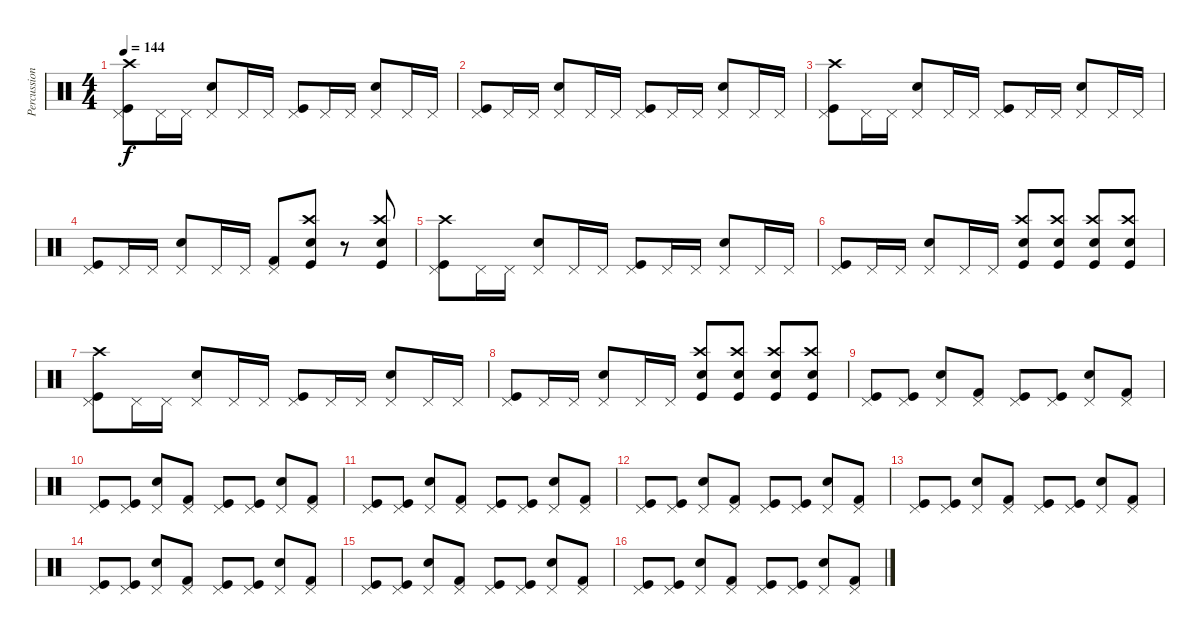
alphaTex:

\track ("Percussion" "Percussion") {instrument percussion}
\staff {score}
\articulation defaults
\ts (4 4)
\tempo 144
\clef neutral
\ks c
("Pedal Hi-Hat (hit)" "Kick (hit)" "Crash high (hit)").8{dy f} "Pedal Hi-Hat (hit)".16 "Pedal Hi-Hat (hit)".16 ("Pedal Hi-Hat (hit)" "Snare (hit) 2").8 "Pedal Hi-Hat (hit)".16 "Pedal Hi-Hat (hit)".16 ("Pedal Hi-Hat (hit)" "Kick (hit)").8 "Pedal Hi-Hat (hit)".16 "Pedal Hi-Hat (hit)".16 ("Pedal Hi-Hat (hit)" "Snare (hit) 2").8 "Pedal Hi-Hat (hit)".16 "Pedal Hi-Hat (hit)".16 |
("Pedal Hi-Hat (hit)" "Kick (hit)").8 "Pedal Hi-Hat (hit)".16 "Pedal Hi-Hat (hit)".16 ("Pedal Hi-Hat (hit)" "Snare (hit) 2").8 "Pedal Hi-Hat (hit)".16 "Pedal Hi-Hat (hit)".16 ("Pedal Hi-Hat (hit)" "Kick (hit)").8 "Pedal Hi-Hat (hit)".16 "Pedal Hi-Hat (hit)".16 ("Pedal Hi-Hat (hit)" "Snare (hit) 2").8 "Pedal Hi-Hat (hit)".16 "Pedal Hi-Hat (hit)".16 |
("Pedal Hi-Hat (hit)" "Kick (hit)" "Crash high (hit)").8 "Pedal Hi-Hat (hit)".16 "Pedal Hi-Hat (hit)".16 ("Pedal Hi-Hat (hit)" "Snare (hit) 2").8 "Pedal Hi-Hat (hit)".16 "Pedal Hi-Hat (hit)".16 ("Pedal Hi-Hat (hit)" "Kick (hit)").8 "Pedal Hi-Hat (hit)".16 "Pedal Hi-Hat (hit)".16 ("Pedal Hi-Hat (hit)" "Snare (hit) 2").8 "Pedal Hi-Hat (hit)".16 "Pedal Hi-Hat (hit)".16 |
("Pedal Hi-Hat (hit)" "Kick (hit)").8 "Pedal Hi-Hat (hit)".16 "Pedal Hi-Hat (hit)".16 ("Pedal Hi-Hat (hit)" "Snare (hit) 2").8 "Pedal Hi-Hat (hit)".16 "Pedal Hi-Hat (hit)".16 ("Pedal Hi-Hat (hit)" "Kick (hit) 2").8 ("Crash high (hit)" "Kick (hit)" "Snare (hit) 2").8 r.8 ("Crash high (hit)" "Kick (hit)" "Snare (hit) 2").8 |
("Pedal Hi-Hat (hit)" "Kick (hit)" "Crash high (hit)").8 "Pedal Hi-Hat (hit)".16 "Pedal Hi-Hat (hit)".16 ("Pedal Hi-Hat (hit)" "Snare (hit) 2").8 "Pedal Hi-Hat (hit)".16 "Pedal Hi-Hat (hit)".16 ("Pedal Hi-Hat (hit)" "Kick (hit)").8 "Pedal Hi-Hat (hit)".16 "Pedal Hi-Hat (hit)".16 ("Pedal Hi-Hat (hit)" "Snare (hit) 2").8 "Pedal Hi-Hat (hit)".16 "Pedal Hi-Hat (hit)".16 |
("Pedal Hi-Hat (hit)" "Kick (hit)").8 "Pedal Hi-Hat (hit)".16 "Pedal Hi-Hat (hit)".16 ("Pedal Hi-Hat (hit)" "Snare (hit) 2").8 "Pedal Hi-Hat (hit)".16 "Pedal Hi-Hat (hit)".16 ("Snare (hit) 2" "Kick (hit)" "Crash high (hit)").8 ("Snare (hit) 2" "Kick (hit)" "Crash high (hit)").8 ("Snare (hit) 2" "Kick (hit)" "Crash high (hit)").8 ("Snare (hit) 2" "Kick (hit)" "Crash high (hit)").8 |
("Pedal Hi-Hat (hit)" "Kick (hit)" "Crash high (hit)").8 "Pedal Hi-Hat (hit)".16 "Pedal Hi-Hat (hit)".16 ("Pedal Hi-Hat (hit)" "Snare (hit) 2").8 "Pedal Hi-Hat (hit)".16 "Pedal Hi-Hat (hit)".16 ("Pedal Hi-Hat (hit)" "Kick (hit)").8 "Pedal Hi-Hat (hit)".16 "Pedal Hi-Hat (hit)".16 ("Pedal Hi-Hat (hit)" "Snare (hit) 2").8 "Pedal Hi-Hat (hit)".16 "Pedal Hi-Hat (hit)".16 |
("Pedal Hi-Hat (hit)" "Kick (hit)").8 "Pedal Hi-Hat (hit)".16 "Pedal Hi-Hat (hit)".16 ("Pedal Hi-Hat (hit)" "Snare (hit) 2").8 "Pedal Hi-Hat (hit)".16 "Pedal Hi-Hat (hit)".16 ("Snare (hit) 2" "Kick (hit)" "Crash high (hit)").8 ("Snare (hit) 2" "Kick (hit)" "Crash high (hit)").8 ("Snare (hit) 2" "Kick (hit)" "Crash high (hit)").8 ("Snare (hit) 2" "Kick (hit)" "Crash high (hit)").8 |
("Pedal Hi-Hat (hit)" "Kick (hit)").8 ("Pedal Hi-Hat (hit)" "Kick (hit)").8 ("Pedal Hi-Hat (hit)" "Snare (hit) 2").8 ("Pedal Hi-Hat (hit)" "Kick (hit) 2").8 ("Pedal Hi-Hat (hit)" "Kick (hit)").8 ("Pedal Hi-Hat (hit)" "Kick (hit)").8 ("Pedal Hi-Hat (hit)" "Snare (hit) 2").8 ("Pedal Hi-Hat (hit)" "Kick (hit) 2").8 |
("Pedal Hi-Hat (hit)" "Kick (hit)").8 ("Pedal Hi-Hat (hit)" "Kick (hit)").8 ("Pedal Hi-Hat (hit)" "Snare (hit) 2").8 ("Pedal Hi-Hat (hit)" "Kick (hit) 2").8 ("Pedal Hi-Hat (hit)" "Kick (hit)").8 ("Pedal Hi-Hat (hit)" "Kick (hit)").8 ("Pedal Hi-Hat (hit)" "Snare (hit) 2").8 ("Pedal Hi-Hat (hit)" "Kick (hit) 2").8 |
("Pedal Hi-Hat (hit)" "Kick (hit)").8 ("Pedal Hi-Hat (hit)" "Kick (hit)").8 ("Pedal Hi-Hat (hit)" "Snare (hit) 2").8 ("Pedal Hi-Hat (hit)" "Kick (hit) 2").8 ("Pedal Hi-Hat (hit)" "Kick (hit)").8 ("Pedal Hi-Hat (hit)" "Kick (hit)").8 ("Pedal Hi-Hat (hit)" "Snare (hit) 2").8 ("Pedal Hi-Hat (hit)" "Kick (hit) 2").8 |
("Pedal Hi-Hat (hit)" "Kick (hit)").8 ("Pedal Hi-Hat (hit)" "Kick (hit)").8 ("Pedal Hi-Hat (hit)" "Snare (hit) 2").8 ("Pedal Hi-Hat (hit)" "Kick (hit) 2").8 ("Pedal Hi-Hat (hit)" "Kick (hit)").8 ("Pedal Hi-Hat (hit)" "Kick (hit)").8 ("Pedal Hi-Hat (hit)" "Snare (hit) 2").8 ("Pedal Hi-Hat (hit)" "Kick (hit) 2").8 |
("Pedal Hi-Hat (hit)" "Kick (hit)").8 ("Pedal Hi-Hat (hit)" "Kick (hit)").8 ("Pedal Hi-Hat (hit)" "Snare (hit) 2").8 ("Pedal Hi-Hat (hit)" "Kick (hit) 2").8 ("Pedal Hi-Hat (hit)" "Kick (hit)").8 ("Pedal Hi-Hat (hit)" "Kick (hit)").8 ("Pedal Hi-Hat (hit)" "Snare (hit) 2").8 ("Pedal Hi-Hat (hit)" "Kick (hit) 2").8 |
("Pedal Hi-Hat (hit)" "Kick (hit)").8 ("Pedal Hi-Hat (hit)" "Kick (hit)").8 ("Pedal Hi-Hat (hit)" "Snare (hit) 2").8 ("Pedal Hi-Hat (hit)" "Kick (hit) 2").8 ("Pedal Hi-Hat (hit)" "Kick (hit)").8 ("Pedal Hi-Hat (hit)" "Kick (hit)").8 ("Pedal Hi-Hat (hit)" "Snare (hit) 2").8 ("Pedal Hi-Hat (hit)" "Kick (hit) 2").8 |
("Pedal Hi-Hat (hit)" "Kick (hit)").8 ("Pedal Hi-Hat (hit)" "Kick (hit)").8 ("Pedal Hi-Hat (hit)" "Snare (hit) 2").8 ("Pedal Hi-Hat (hit)" "Kick (hit) 2").8 ("Pedal Hi-Hat (hit)" "Kick (hit)").8 ("Pedal Hi-Hat (hit)" "Kick (hit)").8 ("Pedal Hi-Hat (hit)" "Snare (hit) 2").8 ("Pedal Hi-Hat (hit)" "Kick (hit) 2").8 |
("Pedal Hi-Hat (hit)" "Kick (hit)").8 ("Pedal Hi-Hat (hit)" "Kick (hit)").8 ("Pedal Hi-Hat (hit)" "Snare (hit) 2").8 ("Pedal Hi-Hat (hit)" "Kick (hit) 2").8 ("Pedal Hi-Hat (hit)" "Kick (hit)").8 ("Pedal Hi-Hat (hit)" "Kick (hit)").8 ("Pedal Hi-Hat (hit)" "Snare (hit) 2").8 ("Pedal Hi-Hat (hit)" "Kick (hit) 2").8
